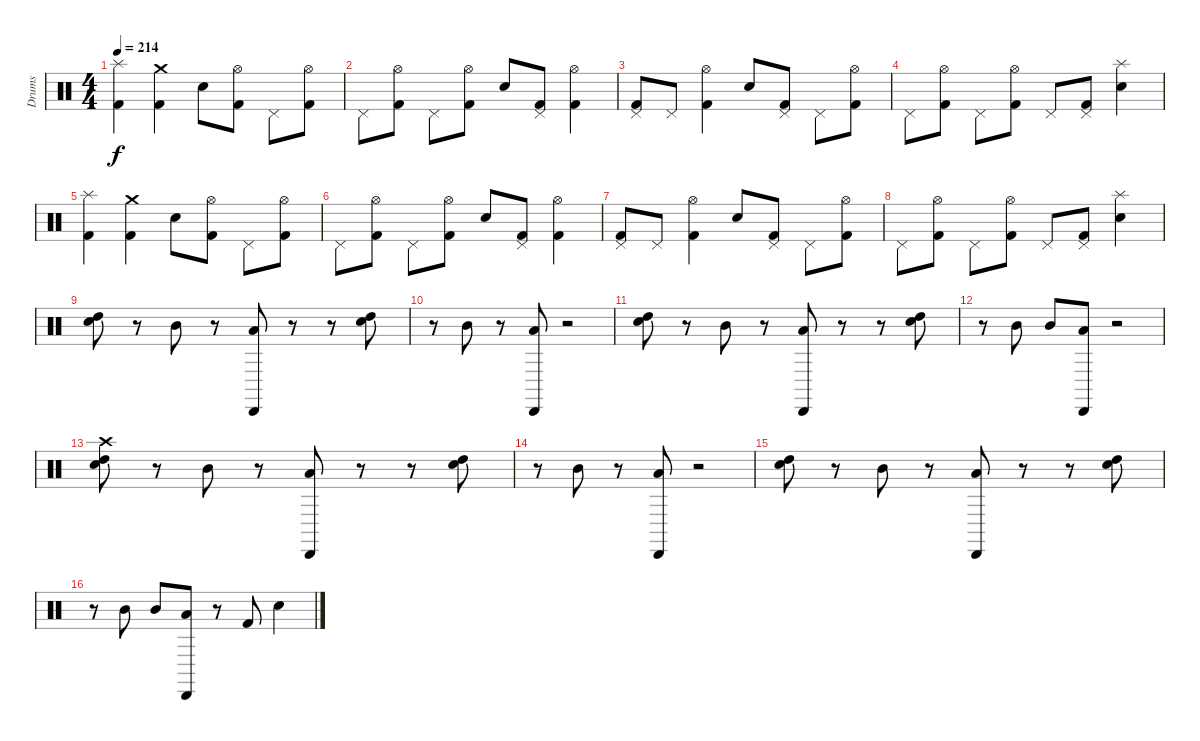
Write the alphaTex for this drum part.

\track ("Drums" "Drums") {instrument percussion}
\staff {score}
\articulation defaults
\ts (4 4)
\tempo 214
\clef neutral
\ks c
("Splash (hit)" "Kick (hit) 2").4{dy f} ("Crash medium (hit)" "Kick (hit) 2").4 "Electric Snare (hit)".8 ("Hi-Hat (open)" "Kick (hit) 2").8 "Pedal Hi-Hat (hit)".8 ("Hi-Hat (open)" "Kick (hit) 2").8 |
"Pedal Hi-Hat (hit)".8 ("Hi-Hat (open)" "Kick (hit) 2").8 "Pedal Hi-Hat (hit)".8 ("Hi-Hat (open)" "Kick (hit) 2").8 "Electric Snare (hit)".8 ("Pedal Hi-Hat (hit)" "Kick (hit) 2").8 ("Hi-Hat (open)" "Kick (hit) 2").4 |
("Pedal Hi-Hat (hit)" "Kick (hit) 2").8 "Pedal Hi-Hat (hit)".8 ("Hi-Hat (open)" "Kick (hit) 2").4 "Electric Snare (hit)".8 ("Pedal Hi-Hat (hit)" "Kick (hit) 2").8 "Pedal Hi-Hat (hit)".8 ("Hi-Hat (open)" "Kick (hit) 2").8 |
"Pedal Hi-Hat (hit)".8 ("Hi-Hat (open)" "Kick (hit) 2").8 "Pedal Hi-Hat (hit)".8 ("Hi-Hat (open)" "Kick (hit) 2").8 "Pedal Hi-Hat (hit)".8 ("Pedal Hi-Hat (hit)" "Kick (hit) 2").8 ("Splash (hit)" "Electric Snare (hit)").4 |
("Splash (hit)" "Kick (hit) 2").4 ("Crash medium (hit)" "Kick (hit) 2").4 "Electric Snare (hit)".8 ("Hi-Hat (open)" "Kick (hit) 2").8 "Pedal Hi-Hat (hit)".8 ("Hi-Hat (open)" "Kick (hit) 2").8 |
"Pedal Hi-Hat (hit)".8 ("Hi-Hat (open)" "Kick (hit) 2").8 "Pedal Hi-Hat (hit)".8 ("Hi-Hat (open)" "Kick (hit) 2").8 "Electric Snare (hit)".8 ("Pedal Hi-Hat (hit)" "Kick (hit) 2").8 ("Hi-Hat (open)" "Kick (hit) 2").4 |
("Pedal Hi-Hat (hit)" "Kick (hit) 2").8 "Pedal Hi-Hat (hit)".8 ("Hi-Hat (open)" "Kick (hit) 2").4 "Electric Snare (hit)".8 ("Pedal Hi-Hat (hit)" "Kick (hit) 2").8 "Pedal Hi-Hat (hit)".8 ("Hi-Hat (open)" "Kick (hit) 2").8 |
"Pedal Hi-Hat (hit)".8 ("Hi-Hat (open)" "Kick (hit) 2").8 "Pedal Hi-Hat (hit)".8 ("Hi-Hat (open)" "Kick (hit) 2").8 "Pedal Hi-Hat (hit)".8 ("Pedal Hi-Hat (hit)" "Kick (hit) 2").8 ("Splash (hit)" "Electric Snare (hit)").4 |
("High Tom (hit)" "Hand Clap (hit)").8 r.8 "Mid Tom (hit)".8 r.8 ("Low Tom (hit)" "Cabasa (hit)").8 r.8 r.8 ("High Tom (hit)" "Hand Clap (hit)").8 |
r.8 "Mid Tom (hit)".8 r.8 ("Low Tom (hit)" "Cabasa (hit)").8 r.2 |
("High Tom (hit)" "Hand Clap (hit)").8 r.8 "Mid Tom (hit)".8 r.8 ("Low Tom (hit)" "Cabasa (hit)").8 r.8 r.8 ("High Tom (hit)" "Hand Clap (hit)").8 |
r.8 "Mid Tom (hit)".8 "Mid Tom (hit)".8 ("Low Tom (hit)" "Cabasa (hit)").8 r.2 |
("Crash high (hit)" "High Tom (hit)" "Hand Clap (hit)").8 r.8 "Mid Tom (hit)".8 r.8 ("Low Tom (hit)" "Cabasa (hit)").8 r.8 r.8 ("High Tom (hit)" "Hand Clap (hit)").8 |
r.8 "Mid Tom (hit)".8 r.8 ("Low Tom (hit)" "Cabasa (hit)").8 r.2 |
("High Tom (hit)" "Hand Clap (hit)").8 r.8 "Mid Tom (hit)".8 r.8 ("Low Tom (hit)" "Cabasa (hit)").8 r.8 r.8 ("High Tom (hit)" "Hand Clap (hit)").8 |
r.8 "Mid Tom (hit)".8 "Mid Tom (hit)".8 ("Low Tom (hit)" "Cabasa (hit)").8 r.8 "Kick (hit) 2".8 "Electric Snare (hit)".4
